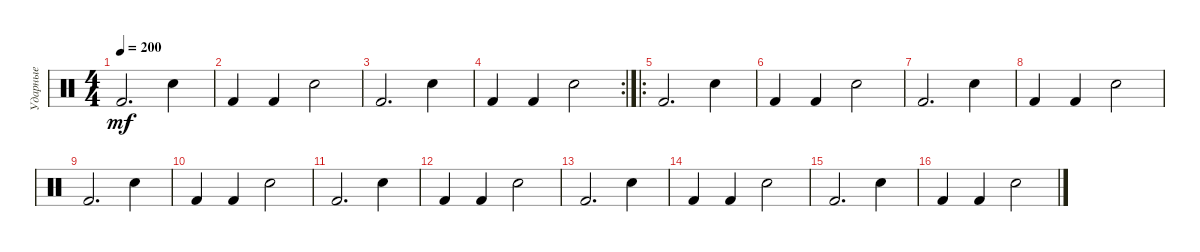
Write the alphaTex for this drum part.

\track ("Ударные" "Ударные") {instrument percussion}
\staff {score}
\articulation defaults
\ts (4 4)
\tempo 200
\clef neutral
\ks c "Kick (hit) 2".2{d dy mf} "Snare (hit) 2".4
|
"Kick (hit) 2".4 "Kick (hit) 2".4 "Snare (hit) 2".2 |
"Kick (hit) 2".2{d} "Snare (hit) 2".4 |
\rc 2 "Kick (hit) 2".4 "Kick (hit) 2".4 "Snare (hit) 2".2
|
\ro "Kick (hit) 2".2{d} "Snare (hit) 2".4
|
"Kick (hit) 2".4 "Kick (hit) 2".4 "Snare (hit) 2".2 |
"Kick (hit) 2".2{d} "Snare (hit) 2".4 |
"Kick (hit) 2".4 "Kick (hit) 2".4 "Snare (hit) 2".2 |
"Kick (hit) 2".2{d} "Snare (hit) 2".4 |
"Kick (hit) 2".4 "Kick (hit) 2".4 "Snare (hit) 2".2 |
"Kick (hit) 2".2{d} "Snare (hit) 2".4 |
"Kick (hit) 2".4 "Kick (hit) 2".4 "Snare (hit) 2".2 |
"Kick (hit) 2".2{d} "Snare (hit) 2".4 |
"Kick (hit) 2".4 "Kick (hit) 2".4 "Snare (hit) 2".2 |
"Kick (hit) 2".2{d} "Snare (hit) 2".4 |
"Kick (hit) 2".4 "Kick (hit) 2".4 "Snare (hit) 2".2
